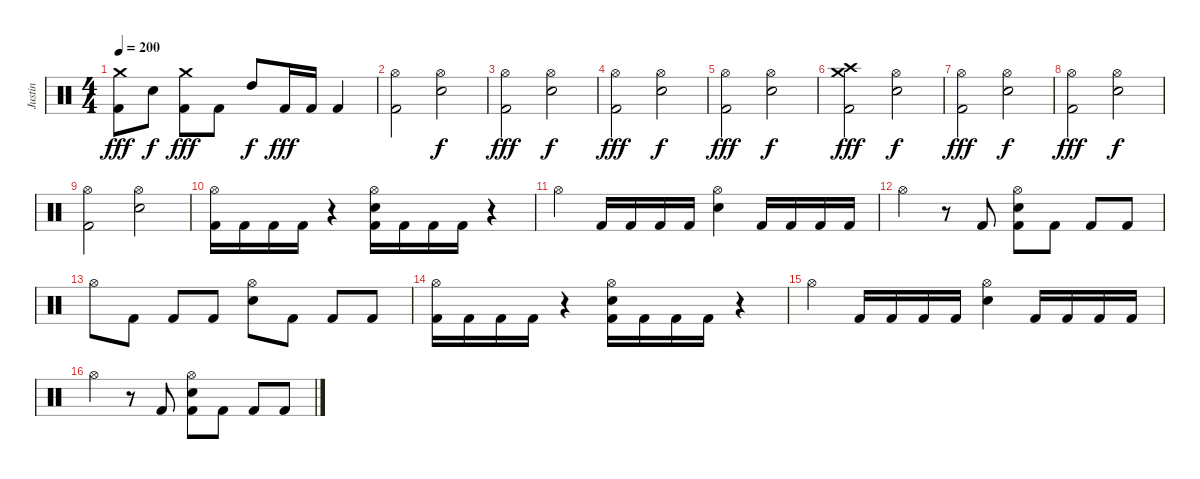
\track ("Justin" "Justin") {instrument percussion}
\staff {score}
\articulation defaults
\ts (4 4)
\tempo 200
\clef neutral
\ks c
("Crash medium (hit)" "Kick (hit) 2").8{dy fff} "Electric Snare (hit)".8{dy f} ("Crash medium (hit)" "Kick (hit) 2").8{dy fff} "Kick (hit) 2".8 "High Tom (hit)".8{dy f} "Kick (hit) 2".16{dy fff} "Kick (hit) 2".16 "Kick (hit) 2".4 |
("Hi-Hat (open)" "Kick (hit) 2").2 ("Hi-Hat (open)" "Electric Snare (hit)").2{dy f} |
("Hi-Hat (open)" "Kick (hit) 2").2{dy fff} ("Hi-Hat (open)" "Electric Snare (hit)").2{dy f} |
("Hi-Hat (open)" "Kick (hit) 2").2{dy fff} ("Hi-Hat (open)" "Electric Snare (hit)").2{dy f} |
("Hi-Hat (open)" "Kick (hit) 2").2{dy fff} ("Hi-Hat (open)" "Electric Snare (hit)").2{dy f} |
("Crash medium (hit)" "Crash high (hit)" "Kick (hit) 2").2{dy fff} ("Hi-Hat (open)" "Electric Snare (hit)").2{dy f} |
("Hi-Hat (open)" "Kick (hit) 2").2{dy fff} ("Hi-Hat (open)" "Electric Snare (hit)").2{dy f} |
("Hi-Hat (open)" "Kick (hit) 2").2{dy fff} ("Hi-Hat (open)" "Electric Snare (hit)").2{dy f} |
("Hi-Hat (open)" "Kick (hit) 2").2 ("Hi-Hat (open)" "Electric Snare (hit)").2 |
("Hi-Hat (open)" "Kick (hit) 2").16 "Kick (hit) 2".16 "Kick (hit) 2".16 "Kick (hit) 2".16 r.4 ("Hi-Hat (open)" "Electric Snare (hit)" "Kick (hit) 2").16 "Kick (hit) 2".16 "Kick (hit) 2".16 "Kick (hit) 2".16 r.4 |
"Hi-Hat (open)".4 "Kick (hit) 2".16 "Kick (hit) 2".16 "Kick (hit) 2".16 "Kick (hit) 2".16 ("Hi-Hat (open)" "Electric Snare (hit)").4 "Kick (hit) 2".16 "Kick (hit) 2".16 "Kick (hit) 2".16 "Kick (hit) 2".16 |
"Hi-Hat (open)".4 r.8 "Kick (hit) 2".8 ("Hi-Hat (open)" "Electric Snare (hit)" "Kick (hit) 2").8 "Kick (hit) 2".8 "Kick (hit) 2".8 "Kick (hit) 2".8 |
"Hi-Hat (open)".8 "Kick (hit) 2".8 "Kick (hit) 2".8 "Kick (hit) 2".8 ("Hi-Hat (open)" "Electric Snare (hit)").8 "Kick (hit) 2".8 "Kick (hit) 2".8 "Kick (hit) 2".8 |
("Hi-Hat (open)" "Kick (hit) 2").16 "Kick (hit) 2".16 "Kick (hit) 2".16 "Kick (hit) 2".16 r.4 ("Hi-Hat (open)" "Electric Snare (hit)" "Kick (hit) 2").16 "Kick (hit) 2".16 "Kick (hit) 2".16 "Kick (hit) 2".16 r.4 |
"Hi-Hat (open)".4 "Kick (hit) 2".16 "Kick (hit) 2".16 "Kick (hit) 2".16 "Kick (hit) 2".16 ("Hi-Hat (open)" "Electric Snare (hit)").4 "Kick (hit) 2".16 "Kick (hit) 2".16 "Kick (hit) 2".16 "Kick (hit) 2".16 |
"Hi-Hat (open)".4 r.8 "Kick (hit) 2".8 ("Hi-Hat (open)" "Electric Snare (hit)" "Kick (hit) 2").8 "Kick (hit) 2".8 "Kick (hit) 2".8 "Kick (hit) 2".8
